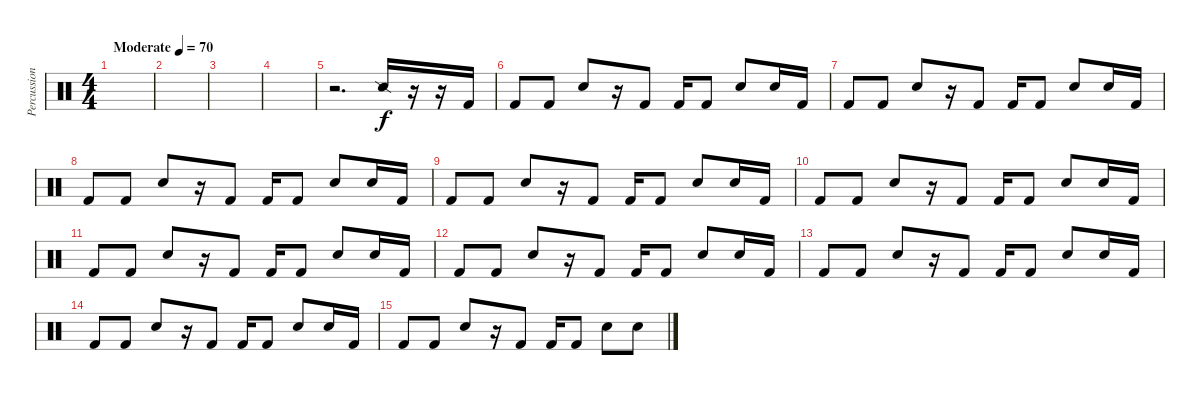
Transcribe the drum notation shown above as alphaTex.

\track ("Percussion 2" "Percussion") {instrument percussion}
\staff {score}
\articulation defaults
\ts (4 4)
\tempo (70 "Moderate")
\clef neutral
\ks c
|
|
|
|
r.2{d} "Snare (side stick) 2".16 r.16 r.16 "Kick (hit) 2".16 |
"Kick (hit) 2".8 "Kick (hit) 2".8 "Electric Snare (hit)".8 r.16 "Kick (hit) 2".8 "Kick (hit) 2".16 "Kick (hit) 2".8 "Electric Snare (hit)".8 "Electric Snare (hit)".16 "Kick (hit) 2".16 |
"Kick (hit) 2".8 "Kick (hit) 2".8 "Electric Snare (hit)".8 r.16 "Kick (hit) 2".8 "Kick (hit) 2".16 "Kick (hit) 2".8 "Electric Snare (hit)".8 "Electric Snare (hit)".16 "Kick (hit) 2".16 |
"Kick (hit) 2".8 "Kick (hit) 2".8 "Electric Snare (hit)".8 r.16 "Kick (hit) 2".8 "Kick (hit) 2".16 "Kick (hit) 2".8 "Electric Snare (hit)".8 "Electric Snare (hit)".16 "Kick (hit) 2".16 |
"Kick (hit) 2".8 "Kick (hit) 2".8 "Electric Snare (hit)".8 r.16 "Kick (hit) 2".8 "Kick (hit) 2".16 "Kick (hit) 2".8 "Electric Snare (hit)".8 "Electric Snare (hit)".16 "Kick (hit) 2".16 |
"Kick (hit) 2".8 "Kick (hit) 2".8 "Electric Snare (hit)".8 r.16 "Kick (hit) 2".8 "Kick (hit) 2".16 "Kick (hit) 2".8 "Electric Snare (hit)".8 "Electric Snare (hit)".16 "Kick (hit) 2".16 |
"Kick (hit) 2".8 "Kick (hit) 2".8 "Electric Snare (hit)".8 r.16 "Kick (hit) 2".8 "Kick (hit) 2".16 "Kick (hit) 2".8 "Electric Snare (hit)".8 "Electric Snare (hit)".16 "Kick (hit) 2".16 |
"Kick (hit) 2".8 "Kick (hit) 2".8 "Electric Snare (hit)".8 r.16 "Kick (hit) 2".8 "Kick (hit) 2".16 "Kick (hit) 2".8 "Electric Snare (hit)".8 "Electric Snare (hit)".16 "Kick (hit) 2".16 |
"Kick (hit) 2".8 "Kick (hit) 2".8 "Electric Snare (hit)".8 r.16 "Kick (hit) 2".8 "Kick (hit) 2".16 "Kick (hit) 2".8 "Electric Snare (hit)".8 "Electric Snare (hit)".16 "Kick (hit) 2".16 |
"Kick (hit) 2".8 "Kick (hit) 2".8 "Electric Snare (hit)".8 r.16 "Kick (hit) 2".8 "Kick (hit) 2".16 "Kick (hit) 2".8 "Electric Snare (hit)".8 "Electric Snare (hit)".16 "Kick (hit) 2".16 |
"Kick (hit) 2".8 "Kick (hit) 2".8 "Electric Snare (hit)".8 r.16 "Kick (hit) 2".8 "Kick (hit) 2".16 "Kick (hit) 2".8 "Electric Snare (hit)".8 "Electric Snare (hit)".8
